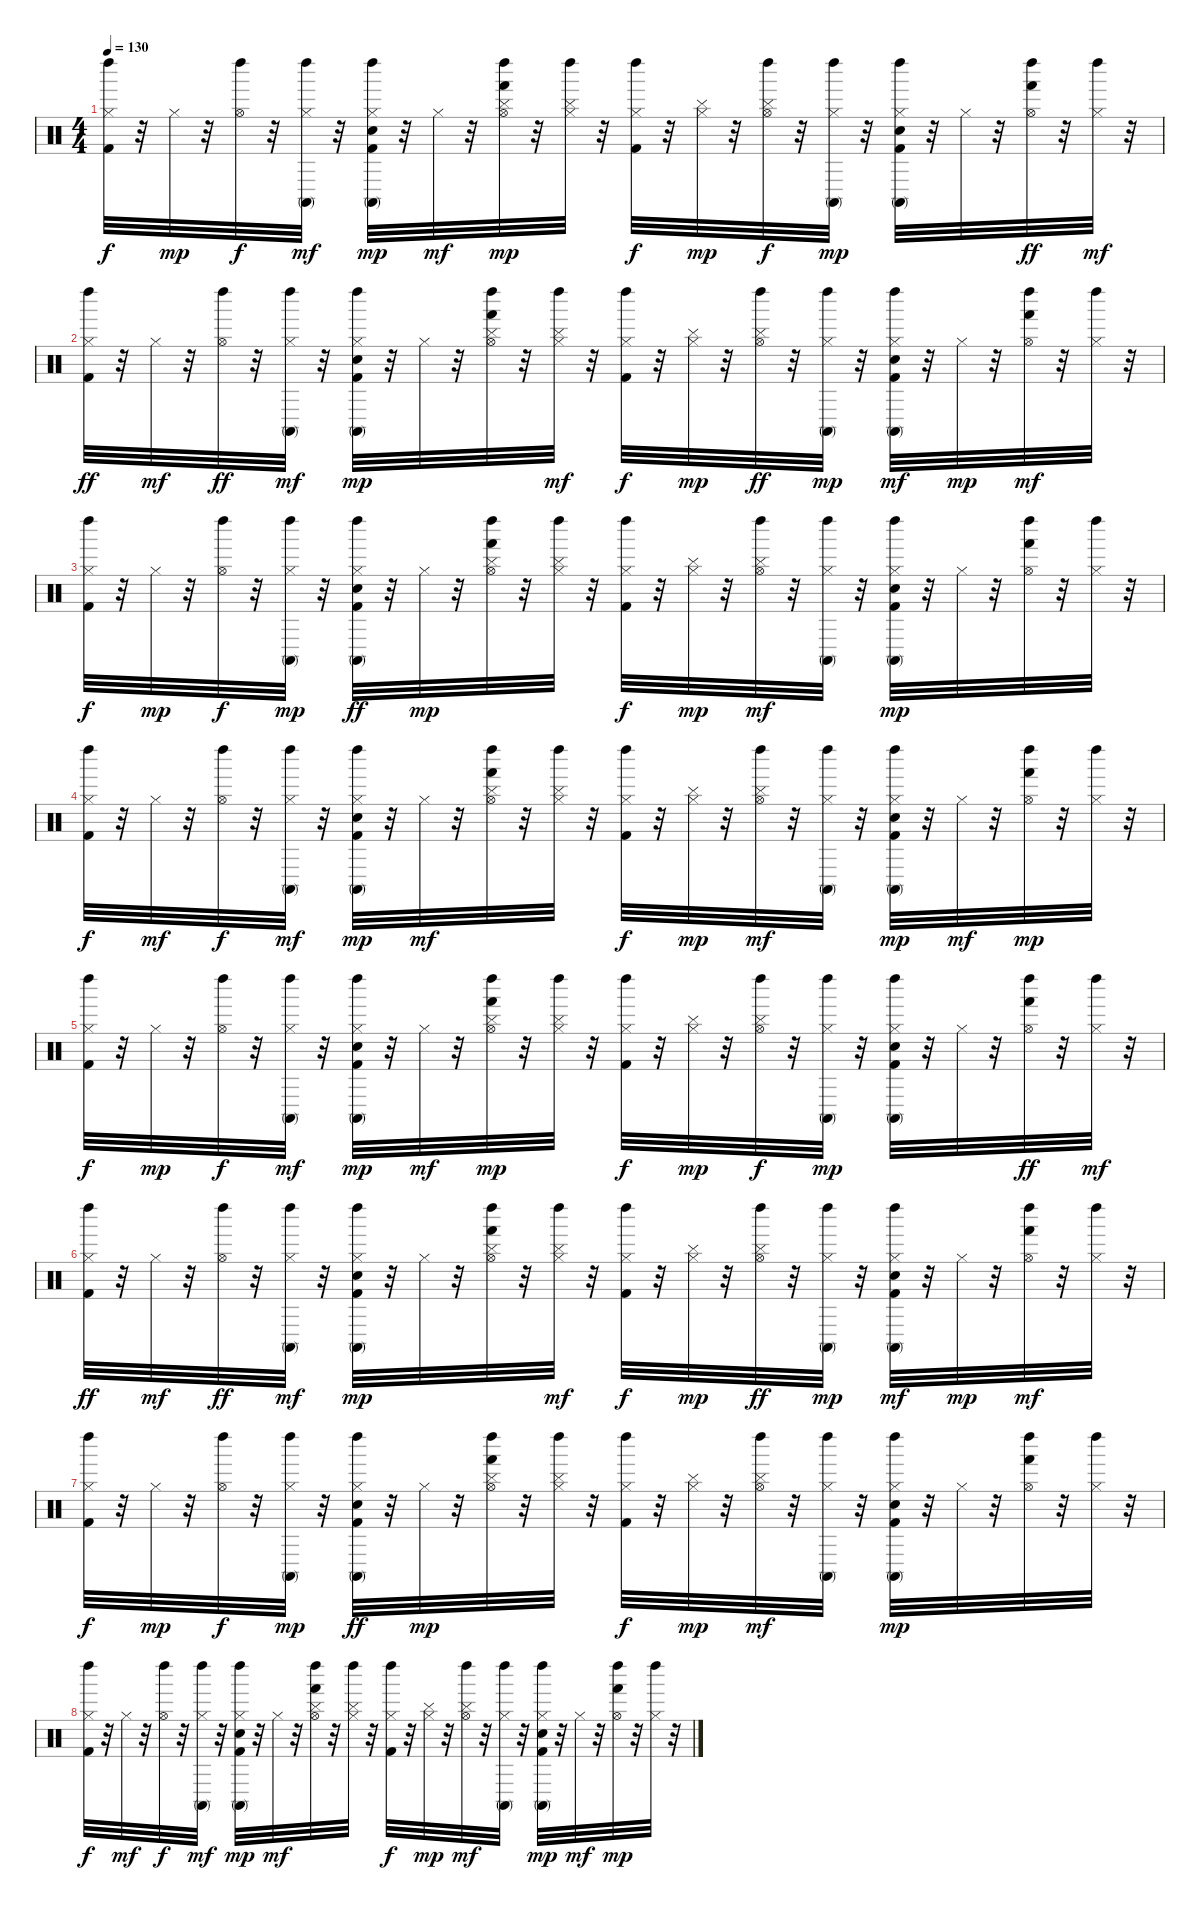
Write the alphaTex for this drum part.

\track "" {instrument percussion}
\staff {score}
\articulation defaults
\ts (4 4)
\tempo 130
\clef neutral
\ks c
("Left Maraca (hit)" "Hi-Hat (closed)" "Kick (hit) 2").32{dy f} r.32 "Hi-Hat (closed)".32{dy mp} r.32 ("Hi-Hat (open)" "Left Maraca (hit)").32{dy f} r.32 ("Conga high (mute)" "Hi-Hat (closed)" "Left Maraca (hit)").32{dy mf} r.32 ("Left Maraca (hit)" "Hand Clap (hit)" "Hi-Hat (closed)" "Kick (hit) 2" "Conga high (mute)").32{dy mp} r.32 "Hi-Hat (closed)".32{dy mf} r.32 ("Hand (hit)" "Left Maraca (hit)" "Cymbal (hit)" "Hi-Hat (open)").32{dy mp} r.32 ("Left Maraca (hit)" "Cymbal (hit)" "Hi-Hat (closed)").32 r.32 ("Left Maraca (hit)" "Kick (hit) 2" "Hi-Hat (closed)").32{dy f} r.32 ("Cymbal (hit)" "Hi-Hat (closed)").32{dy mp} r.32 ("Hi-Hat (open)" "Cymbal (hit)" "Left Maraca (hit)").32{dy f} r.32 ("Conga high (mute)" "Hi-Hat (closed)" "Left Maraca (hit)").32{dy mp} r.32 ("Kick (hit) 2" "Hi-Hat (closed)" "Left Maraca (hit)" "Conga high (mute)" "Hand Clap (hit)").32 r.32 "Hi-Hat (closed)".32 r.32 ("Hand (hit)" "Hi-Hat (open)" "Left Maraca (hit)").32{dy ff} r.32 ("Hi-Hat (closed)" "Left Maraca (hit)").32{dy mf} r.32 |
("Kick (hit) 2" "Hi-Hat (closed)" "Left Maraca (hit)").32{dy ff} r.32 "Hi-Hat (closed)".32{dy mf} r.32 ("Left Maraca (hit)" "Hi-Hat (open)").32{dy ff} r.32 ("Conga high (mute)" "Hi-Hat (closed)" "Left Maraca (hit)").32{dy mf} r.32 ("Kick (hit) 2" "Hi-Hat (closed)" "Conga high (mute)" "Left Maraca (hit)" "Hand Clap (hit)").32{dy mp} r.32 "Hi-Hat (closed)".32 r.32 ("Cymbal (hit)" "Hand (hit)" "Hi-Hat (open)" "Left Maraca (hit)").32 r.32 ("Hi-Hat (closed)" "Cymbal (hit)" "Left Maraca (hit)").32{dy mf} r.32 ("Kick (hit) 2" "Hi-Hat (closed)" "Left Maraca (hit)").32{dy f} r.32 ("Cymbal (hit)" "Hi-Hat (closed)").32{dy mp} r.32 ("Cymbal (hit)" "Hi-Hat (open)" "Left Maraca (hit)").32{dy ff} r.32 ("Hi-Hat (closed)" "Left Maraca (hit)" "Conga high (mute)").32{dy mp} r.32 ("Kick (hit) 2" "Hi-Hat (closed)" "Hand Clap (hit)" "Conga high (mute)" "Left Maraca (hit)").32{dy mf} r.32 "Hi-Hat (closed)".32{dy mp} r.32 ("Hand (hit)" "Left Maraca (hit)" "Hi-Hat (open)").32{dy mf} r.32 ("Left Maraca (hit)" "Hi-Hat (closed)").32 r.32 |
("Left Maraca (hit)" "Hi-Hat (closed)" "Kick (hit) 2").32{dy f} r.32 "Hi-Hat (closed)".32{dy mp} r.32 ("Hi-Hat (open)" "Left Maraca (hit)").32{dy f} r.32 ("Conga high (mute)" "Hi-Hat (closed)" "Left Maraca (hit)").32{dy mp} r.32 ("Conga high (mute)" "Left Maraca (hit)" "Hand Clap (hit)" "Kick (hit) 2" "Hi-Hat (closed)").32{dy ff} r.32 "Hi-Hat (closed)".32{dy mp} r.32 ("Left Maraca (hit)" "Cymbal (hit)" "Hi-Hat (open)" "Hand (hit)").32 r.32 ("Left Maraca (hit)" "Cymbal (hit)" "Hi-Hat (closed)").32 r.32 ("Hi-Hat (closed)" "Kick (hit) 2" "Left Maraca (hit)").32{dy f} r.32 ("Cymbal (hit)" "Hi-Hat (closed)").32{dy mp} r.32 ("Hi-Hat (open)" "Cymbal (hit)" "Left Maraca (hit)").32{dy mf} r.32 ("Hi-Hat (closed)" "Conga high (mute)" "Left Maraca (hit)").32 r.32 ("Conga high (mute)" "Hi-Hat (closed)" "Kick (hit) 2" "Hand Clap (hit)" "Left Maraca (hit)").32{dy mp} r.32 "Hi-Hat (closed)".32 r.32 ("Left Maraca (hit)" "Hand (hit)" "Hi-Hat (open)").32 r.32 ("Hi-Hat (closed)" "Left Maraca (hit)").32 r.32 |
("Hi-Hat (closed)" "Kick (hit) 2" "Left Maraca (hit)").32{dy f} r.32 "Hi-Hat (closed)".32{dy mf} r.32 ("Hi-Hat (open)" "Left Maraca (hit)").32{dy f} r.32 ("Conga high (mute)" "Hi-Hat (closed)" "Left Maraca (hit)").32{dy mf} r.32 ("Hi-Hat (closed)" "Kick (hit) 2" "Left Maraca (hit)" "Hand Clap (hit)" "Conga high (mute)").32{dy mp} r.32 "Hi-Hat (closed)".32{dy mf} r.32 ("Hand (hit)" "Cymbal (hit)" "Hi-Hat (open)" "Left Maraca (hit)").32 r.32 ("Hi-Hat (closed)" "Cymbal (hit)" "Left Maraca (hit)").32 r.32 ("Hi-Hat (closed)" "Kick (hit) 2" "Left Maraca (hit)").32{dy f} r.32 ("Cymbal (hit)" "Hi-Hat (closed)").32{dy mp} r.32 ("Cymbal (hit)" "Left Maraca (hit)" "Hi-Hat (open)").32{dy mf} r.32 ("Conga high (mute)" "Hi-Hat (closed)" "Left Maraca (hit)").32 r.32 ("Hi-Hat (closed)" "Kick (hit) 2" "Conga high (mute)" "Hand Clap (hit)" "Left Maraca (hit)").32{dy mp} r.32 "Hi-Hat (closed)".32{dy mf} r.32 ("Left Maraca (hit)" "Hi-Hat (open)" "Hand (hit)").32{dy mp} r.32 ("Left Maraca (hit)" "Hi-Hat (closed)").32 r.32 |
("Left Maraca (hit)" "Hi-Hat (closed)" "Kick (hit) 2").32{dy f} r.32 "Hi-Hat (closed)".32{dy mp} r.32 ("Hi-Hat (open)" "Left Maraca (hit)").32{dy f} r.32 ("Conga high (mute)" "Hi-Hat (closed)" "Left Maraca (hit)").32{dy mf} r.32 ("Left Maraca (hit)" "Hand Clap (hit)" "Hi-Hat (closed)" "Kick (hit) 2" "Conga high (mute)").32{dy mp} r.32 "Hi-Hat (closed)".32{dy mf} r.32 ("Hand (hit)" "Left Maraca (hit)" "Cymbal (hit)" "Hi-Hat (open)").32{dy mp} r.32 ("Left Maraca (hit)" "Cymbal (hit)" "Hi-Hat (closed)").32 r.32 ("Left Maraca (hit)" "Kick (hit) 2" "Hi-Hat (closed)").32{dy f} r.32 ("Cymbal (hit)" "Hi-Hat (closed)").32{dy mp} r.32 ("Hi-Hat (open)" "Cymbal (hit)" "Left Maraca (hit)").32{dy f} r.32 ("Conga high (mute)" "Hi-Hat (closed)" "Left Maraca (hit)").32{dy mp} r.32 ("Kick (hit) 2" "Hi-Hat (closed)" "Left Maraca (hit)" "Conga high (mute)" "Hand Clap (hit)").32 r.32 "Hi-Hat (closed)".32 r.32 ("Hand (hit)" "Hi-Hat (open)" "Left Maraca (hit)").32{dy ff} r.32 ("Hi-Hat (closed)" "Left Maraca (hit)").32{dy mf} r.32 |
("Kick (hit) 2" "Hi-Hat (closed)" "Left Maraca (hit)").32{dy ff} r.32 "Hi-Hat (closed)".32{dy mf} r.32 ("Left Maraca (hit)" "Hi-Hat (open)").32{dy ff} r.32 ("Conga high (mute)" "Hi-Hat (closed)" "Left Maraca (hit)").32{dy mf} r.32 ("Kick (hit) 2" "Hi-Hat (closed)" "Conga high (mute)" "Left Maraca (hit)" "Hand Clap (hit)").32{dy mp} r.32 "Hi-Hat (closed)".32 r.32 ("Cymbal (hit)" "Hand (hit)" "Hi-Hat (open)" "Left Maraca (hit)").32 r.32 ("Hi-Hat (closed)" "Cymbal (hit)" "Left Maraca (hit)").32{dy mf} r.32 ("Kick (hit) 2" "Hi-Hat (closed)" "Left Maraca (hit)").32{dy f} r.32 ("Cymbal (hit)" "Hi-Hat (closed)").32{dy mp} r.32 ("Cymbal (hit)" "Hi-Hat (open)" "Left Maraca (hit)").32{dy ff} r.32 ("Hi-Hat (closed)" "Left Maraca (hit)" "Conga high (mute)").32{dy mp} r.32 ("Kick (hit) 2" "Hi-Hat (closed)" "Hand Clap (hit)" "Conga high (mute)" "Left Maraca (hit)").32{dy mf} r.32 "Hi-Hat (closed)".32{dy mp} r.32 ("Hand (hit)" "Left Maraca (hit)" "Hi-Hat (open)").32{dy mf} r.32 ("Left Maraca (hit)" "Hi-Hat (closed)").32 r.32 |
("Left Maraca (hit)" "Hi-Hat (closed)" "Kick (hit) 2").32{dy f} r.32 "Hi-Hat (closed)".32{dy mp} r.32 ("Hi-Hat (open)" "Left Maraca (hit)").32{dy f} r.32 ("Conga high (mute)" "Hi-Hat (closed)" "Left Maraca (hit)").32{dy mp} r.32 ("Conga high (mute)" "Left Maraca (hit)" "Hand Clap (hit)" "Kick (hit) 2" "Hi-Hat (closed)").32{dy ff} r.32 "Hi-Hat (closed)".32{dy mp} r.32 ("Left Maraca (hit)" "Cymbal (hit)" "Hi-Hat (open)" "Hand (hit)").32 r.32 ("Left Maraca (hit)" "Cymbal (hit)" "Hi-Hat (closed)").32 r.32 ("Hi-Hat (closed)" "Kick (hit) 2" "Left Maraca (hit)").32{dy f} r.32 ("Cymbal (hit)" "Hi-Hat (closed)").32{dy mp} r.32 ("Hi-Hat (open)" "Cymbal (hit)" "Left Maraca (hit)").32{dy mf} r.32 ("Hi-Hat (closed)" "Conga high (mute)" "Left Maraca (hit)").32 r.32 ("Conga high (mute)" "Hi-Hat (closed)" "Kick (hit) 2" "Hand Clap (hit)" "Left Maraca (hit)").32{dy mp} r.32 "Hi-Hat (closed)".32 r.32 ("Left Maraca (hit)" "Hand (hit)" "Hi-Hat (open)").32 r.32 ("Hi-Hat (closed)" "Left Maraca (hit)").32 r.32 |
("Hi-Hat (closed)" "Kick (hit) 2" "Left Maraca (hit)").32{dy f} r.32 "Hi-Hat (closed)".32{dy mf} r.32 ("Hi-Hat (open)" "Left Maraca (hit)").32{dy f} r.32 ("Conga high (mute)" "Hi-Hat (closed)" "Left Maraca (hit)").32{dy mf} r.32 ("Hi-Hat (closed)" "Kick (hit) 2" "Left Maraca (hit)" "Hand Clap (hit)" "Conga high (mute)").32{dy mp} r.32 "Hi-Hat (closed)".32{dy mf} r.32 ("Hand (hit)" "Cymbal (hit)" "Hi-Hat (open)" "Left Maraca (hit)").32 r.32 ("Hi-Hat (closed)" "Cymbal (hit)" "Left Maraca (hit)").32 r.32 ("Hi-Hat (closed)" "Kick (hit) 2" "Left Maraca (hit)").32{dy f} r.32 ("Cymbal (hit)" "Hi-Hat (closed)").32{dy mp} r.32 ("Cymbal (hit)" "Left Maraca (hit)" "Hi-Hat (open)").32{dy mf} r.32 ("Conga high (mute)" "Hi-Hat (closed)" "Left Maraca (hit)").32 r.32 ("Hi-Hat (closed)" "Kick (hit) 2" "Conga high (mute)" "Hand Clap (hit)" "Left Maraca (hit)").32{dy mp} r.32 "Hi-Hat (closed)".32{dy mf} r.32 ("Left Maraca (hit)" "Hi-Hat (open)" "Hand (hit)").32{dy mp} r.32 ("Left Maraca (hit)" "Hi-Hat (closed)").32 r.32
